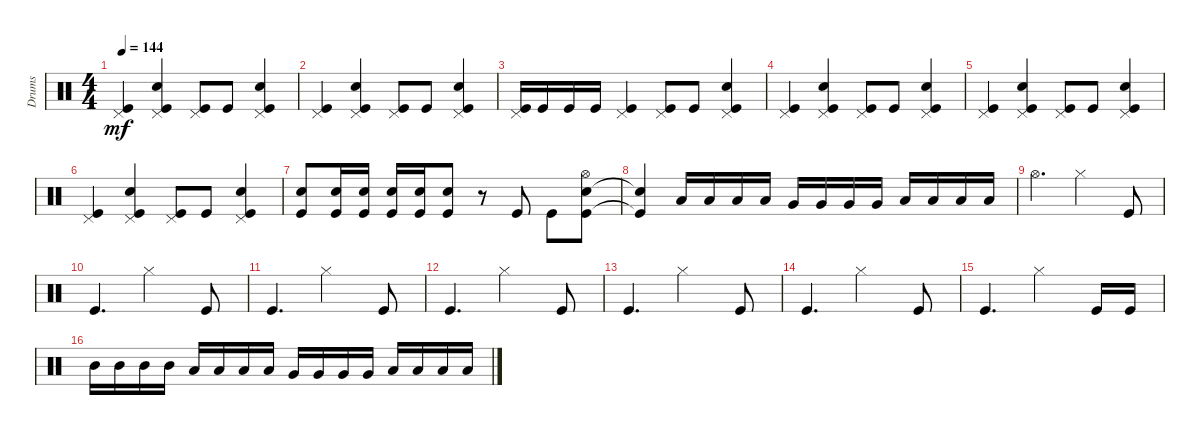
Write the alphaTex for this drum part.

\track ("Drums" "Drums") {instrument percussion}
\staff {score}
\articulation defaults
\ts (4 4)
\tempo 144
\clef neutral
\ks c
("Kick (hit)" "Pedal Hi-Hat (hit)").4{dy mf} ("Kick (hit)" "Snare (hit) 2" "Pedal Hi-Hat (hit)").4 ("Kick (hit)" "Pedal Hi-Hat (hit)").8 "Kick (hit)".8 ("Kick (hit)" "Snare (hit) 2" "Pedal Hi-Hat (hit)").4 |
("Kick (hit)" "Pedal Hi-Hat (hit)").4 ("Kick (hit)" "Snare (hit) 2" "Pedal Hi-Hat (hit)").4 ("Kick (hit)" "Pedal Hi-Hat (hit)").8 "Kick (hit)".8 ("Kick (hit)" "Snare (hit) 2" "Pedal Hi-Hat (hit)").4 |
("Kick (hit)" "Pedal Hi-Hat (hit)").16 "Kick (hit)".16 "Kick (hit)".16 "Kick (hit)".16 ("Kick (hit)" "Pedal Hi-Hat (hit)").4 ("Kick (hit)" "Pedal Hi-Hat (hit)").8 "Kick (hit)".8 ("Kick (hit)" "Snare (hit) 2" "Pedal Hi-Hat (hit)").4 |
("Kick (hit)" "Pedal Hi-Hat (hit)").4 ("Kick (hit)" "Snare (hit) 2" "Pedal Hi-Hat (hit)").4 ("Kick (hit)" "Pedal Hi-Hat (hit)").8 "Kick (hit)".8 ("Kick (hit)" "Snare (hit) 2" "Pedal Hi-Hat (hit)").4 |
("Kick (hit)" "Pedal Hi-Hat (hit)").4 ("Kick (hit)" "Snare (hit) 2" "Pedal Hi-Hat (hit)").4 ("Kick (hit)" "Pedal Hi-Hat (hit)").8 "Kick (hit)".8 ("Kick (hit)" "Snare (hit) 2" "Pedal Hi-Hat (hit)").4 |
("Kick (hit)" "Pedal Hi-Hat (hit)").4 ("Kick (hit)" "Snare (hit) 2" "Pedal Hi-Hat (hit)").4 ("Kick (hit)" "Pedal Hi-Hat (hit)").8 "Kick (hit)".8 ("Kick (hit)" "Snare (hit) 2" "Pedal Hi-Hat (hit)").4 |
("Kick (hit)" "Snare (hit) 2").8 ("Kick (hit)" "Snare (hit) 2").16 ("Kick (hit)" "Snare (hit) 2").16 ("Kick (hit)" "Snare (hit) 2").16 ("Kick (hit)" "Snare (hit) 2").16 ("Kick (hit)" "Snare (hit) 2").8 r.8 "Kick (hit)".8 "Kick (hit)".8 ("Kick (hit)" "Snare (hit) 2" "Hi-Hat (open)").8 |
("Kick (hit)"{t} "Snare (hit) 2"{t}).4 "Low Tom (hit)".16 "Low Tom (hit)".16 "Low Tom (hit)".16 "Low Tom (hit)".16 "Very Low Tom (hit)".16 "Very Low Tom (hit)".16 "Very Low Tom (hit)".16 "Very Low Tom (hit)".16 "Low Floor Tom (hit)".16 "Low Floor Tom (hit)".16 "Low Floor Tom (hit)".16 "Low Floor Tom (hit)".16 |
"Hi-Hat (open)".4{d} "Hi-Hat (closed)".2 "Kick (hit)".8 |
"Kick (hit)".4{d} "Hi-Hat (closed)".2 "Kick (hit)".8 |
"Kick (hit)".4{d} "Hi-Hat (closed)".2 "Kick (hit)".8 |
"Kick (hit)".4{d} "Hi-Hat (closed)".2 "Kick (hit)".8 |
"Kick (hit)".4{d} "Hi-Hat (closed)".2 "Kick (hit)".8 |
"Kick (hit)".4{d} "Hi-Hat (closed)".2 "Kick (hit)".8 |
"Kick (hit)".4{d} "Hi-Hat (closed)".2 "Kick (hit)".16 "Kick (hit)".16 |
"Mid Tom (hit)".16 "Mid Tom (hit)".16 "Mid Tom (hit)".16 "Mid Tom (hit)".16 "Low Tom (hit)".16 "Low Tom (hit)".16 "Low Tom (hit)".16 "Low Tom (hit)".16 "Very Low Tom (hit)".16 "Very Low Tom (hit)".16 "Very Low Tom (hit)".16 "Very Low Tom (hit)".16 "Low Floor Tom (hit)".16 "Low Floor Tom (hit)".16 "Low Floor Tom (hit)".16 "Low Floor Tom (hit)".16
